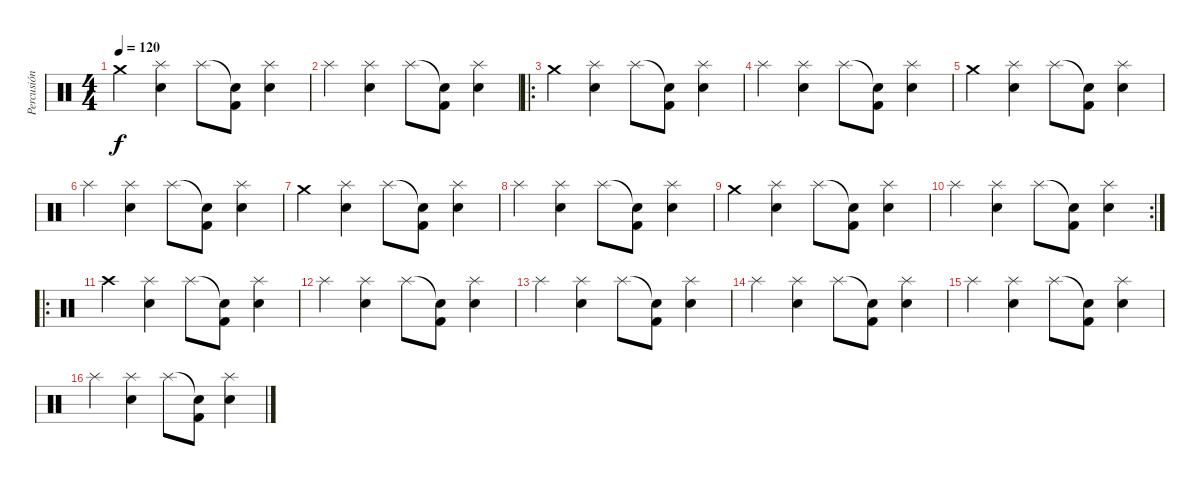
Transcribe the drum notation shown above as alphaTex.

\track ("Percusión" "Percusión") {instrument percussion}
\staff {score}
\articulation defaults
\ts (4 4)
\tempo 120
\clef neutral
\ks c "Crash medium (hit)".4{dy f}
("Splash (hit)" "Snare (hit) 2").4 "Splash (hit)".8 ("Snare (hit)"{t} "Kick (hit) 2").8 ("Splash (hit)" "Snare (hit) 2").4 |
"Splash (hit)".4 ("Splash (hit)" "Snare (hit) 2").4 "Splash (hit)".8 ("Snare (hit)"{t} "Kick (hit) 2").8 ("Splash (hit)" "Snare (hit) 2").4 |
\ro "Crash medium (hit)".4
("Splash (hit)" "Snare (hit) 2").4 "Splash (hit)".8 ("Snare (hit)"{t} "Kick (hit) 2").8 ("Splash (hit)" "Snare (hit) 2").4 |
"Splash (hit)".4 ("Splash (hit)" "Snare (hit) 2").4 "Splash (hit)".8 ("Snare (hit)"{t} "Kick (hit) 2").8 ("Splash (hit)" "Snare (hit) 2").4 |
"Crash medium (hit)".4 ("Splash (hit)" "Snare (hit) 2").4 "Splash (hit)".8 ("Snare (hit)"{t} "Kick (hit) 2").8 ("Splash (hit)" "Snare (hit) 2").4 |
"Splash (hit)".4 ("Splash (hit)" "Snare (hit) 2").4 "Splash (hit)".8 ("Snare (hit)"{t} "Kick (hit) 2").8 ("Splash (hit)" "Snare (hit) 2").4 |
"Crash medium (hit)".4 ("Splash (hit)" "Snare (hit) 2").4 "Splash (hit)".8 ("Snare (hit)"{t} "Kick (hit) 2").8 ("Splash (hit)" "Snare (hit) 2").4 |
"Splash (hit)".4 ("Splash (hit)" "Snare (hit) 2").4 "Splash (hit)".8 ("Snare (hit)"{t} "Kick (hit) 2").8 ("Splash (hit)" "Snare (hit) 2").4 |
"Crash medium (hit)".4 ("Splash (hit)" "Snare (hit) 2").4 "Splash (hit)".8 ("Snare (hit)"{t} "Kick (hit) 2").8 ("Splash (hit)" "Snare (hit) 2").4 |
\rc 2 "Splash (hit)".4
("Splash (hit)" "Snare (hit) 2").4 "Splash (hit)".8 ("Snare (hit)"{t} "Kick (hit) 2").8 ("Splash (hit)" "Snare (hit) 2").4 |
\ro "Crash high (hit)".4
("Splash (hit)" "Snare (hit) 2").4 "Splash (hit)".8 ("Snare (hit)"{t} "Kick (hit) 2").8 ("Splash (hit)" "Snare (hit) 2").4 |
"Splash (hit)".4 ("Splash (hit)" "Snare (hit) 2").4 "Splash (hit)".8 ("Snare (hit)"{t} "Kick (hit) 2").8 ("Splash (hit)" "Snare (hit) 2").4 |
"Splash (hit)".4 ("Splash (hit)" "Snare (hit) 2").4 "Splash (hit)".8 ("Snare (hit)"{t} "Kick (hit) 2").8 ("Splash (hit)" "Snare (hit) 2").4 |
"Splash (hit)".4 ("Splash (hit)" "Snare (hit) 2").4 "Splash (hit)".8 ("Snare (hit)"{t} "Kick (hit) 2").8 ("Splash (hit)" "Snare (hit) 2").4 |
"Splash (hit)".4 ("Splash (hit)" "Snare (hit) 2").4 "Splash (hit)".8 ("Snare (hit)"{t} "Kick (hit) 2").8 ("Splash (hit)" "Snare (hit) 2").4 |
"Splash (hit)".4 ("Splash (hit)" "Snare (hit) 2").4 "Splash (hit)".8 ("Snare (hit)"{t} "Kick (hit) 2").8 ("Splash (hit)" "Snare (hit) 2").4
